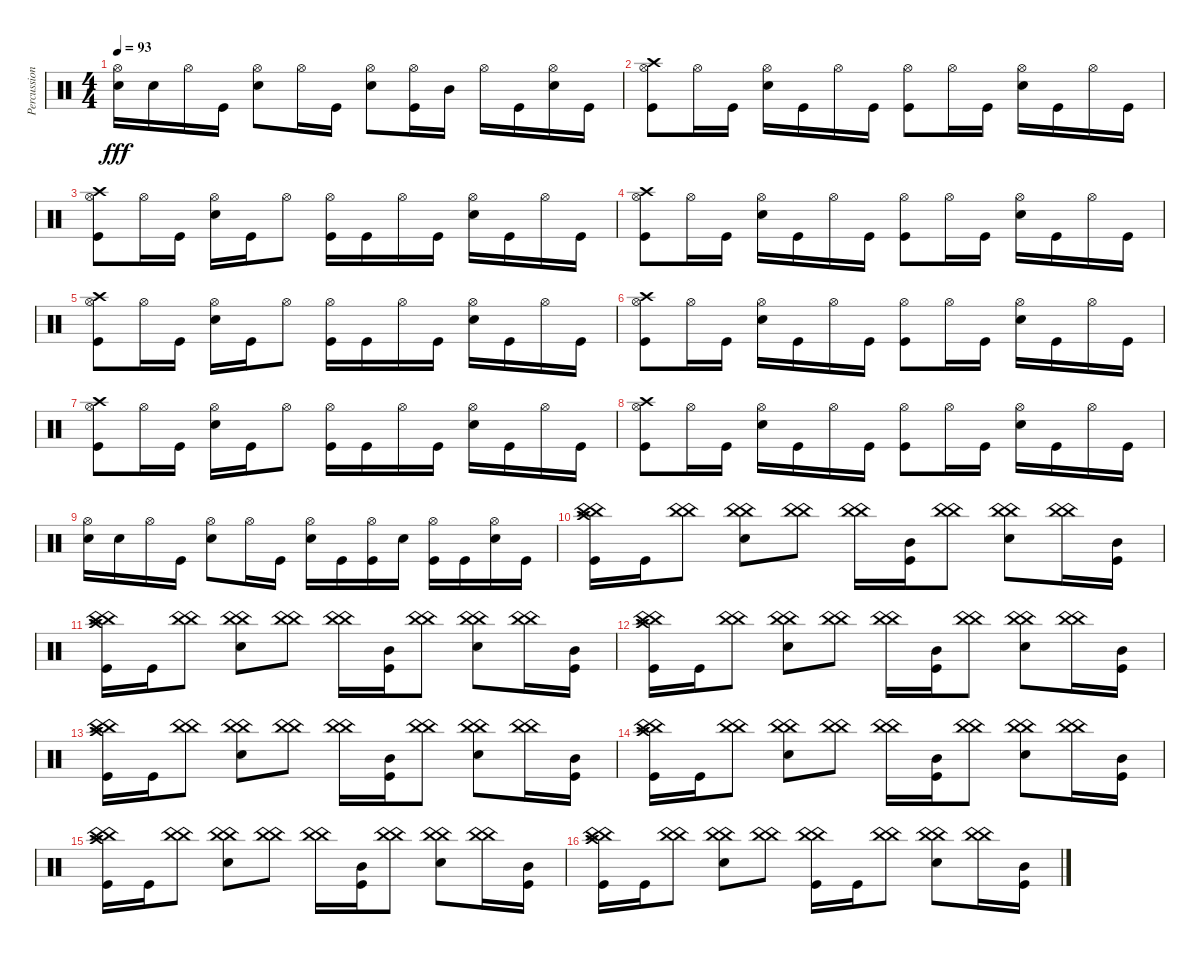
\track ("Percussion" "Percussion") {instrument percussion}
\staff {score}
\articulation defaults
\ts (4 4)
\tempo 93
\clef neutral
\ks c
("Hi-Hat (open)" "Snare (hit) 2").16{dy fff} "Snare (hit) 2".16 "Hi-Hat (open)".16 "Kick (hit)".16 ("Hi-Hat (open)" "Snare (hit) 2").8 "Hi-Hat (open)".16 "Kick (hit)".16 ("Hi-Hat (open)" "Snare (hit) 2").8 ("Hi-Hat (open)" "Kick (hit)").16 "Mid Tom (hit)".16 "Hi-Hat (open)".16 "Kick (hit)".16 ("Hi-Hat (open)" "Snare (hit) 2").16 "Kick (hit)".16 |
("Hi-Hat (open)" "Crash high (hit)" "Kick (hit)").8 "Hi-Hat (open)".16 "Kick (hit)".16 ("Hi-Hat (open)" "Snare (hit) 2").16 "Kick (hit)".16 "Hi-Hat (open)".16 "Kick (hit)".16 ("Hi-Hat (open)" "Kick (hit)").8 "Hi-Hat (open)".16 "Kick (hit)".16 ("Hi-Hat (open)" "Snare (hit) 2").16 "Kick (hit)".16 "Hi-Hat (open)".16 "Kick (hit)".16 |
("Hi-Hat (open)" "Crash high (hit)" "Kick (hit)").8 "Hi-Hat (open)".16 "Kick (hit)".16 ("Hi-Hat (open)" "Snare (hit) 2").16 "Kick (hit)".16 "Hi-Hat (open)".8 ("Hi-Hat (open)" "Kick (hit)").16 "Kick (hit)".16 "Hi-Hat (open)".16 "Kick (hit)".16 ("Hi-Hat (open)" "Snare (hit) 2").16 "Kick (hit)".16 "Hi-Hat (open)".16 "Kick (hit)".16 |
("Hi-Hat (open)" "Crash high (hit)" "Kick (hit)").8 "Hi-Hat (open)".16 "Kick (hit)".16 ("Hi-Hat (open)" "Snare (hit) 2").16 "Kick (hit)".16 "Hi-Hat (open)".16 "Kick (hit)".16 ("Hi-Hat (open)" "Kick (hit)").8 "Hi-Hat (open)".16 "Kick (hit)".16 ("Hi-Hat (open)" "Snare (hit) 2").16 "Kick (hit)".16 "Hi-Hat (open)".16 "Kick (hit)".16 |
("Hi-Hat (open)" "Crash high (hit)" "Kick (hit)").8 "Hi-Hat (open)".16 "Kick (hit)".16 ("Hi-Hat (open)" "Snare (hit) 2").16 "Kick (hit)".16 "Hi-Hat (open)".8 ("Hi-Hat (open)" "Kick (hit)").16 "Kick (hit)".16 "Hi-Hat (open)".16 "Kick (hit)".16 ("Hi-Hat (open)" "Snare (hit) 2").16 "Kick (hit)".16 "Hi-Hat (open)".16 "Kick (hit)".16 |
("Hi-Hat (open)" "Crash high (hit)" "Kick (hit)").8 "Hi-Hat (open)".16 "Kick (hit)".16 ("Hi-Hat (open)" "Snare (hit) 2").16 "Kick (hit)".16 "Hi-Hat (open)".16 "Kick (hit)".16 ("Hi-Hat (open)" "Kick (hit)").8 "Hi-Hat (open)".16 "Kick (hit)".16 ("Hi-Hat (open)" "Snare (hit) 2").16 "Kick (hit)".16 "Hi-Hat (open)".16 "Kick (hit)".16 |
("Hi-Hat (open)" "Crash high (hit)" "Kick (hit)").8 "Hi-Hat (open)".16 "Kick (hit)".16 ("Hi-Hat (open)" "Snare (hit) 2").16 "Kick (hit)".16 "Hi-Hat (open)".8 ("Hi-Hat (open)" "Kick (hit)").16 "Kick (hit)".16 "Hi-Hat (open)".16 "Kick (hit)".16 ("Hi-Hat (open)" "Snare (hit) 2").16 "Kick (hit)".16 "Hi-Hat (open)".16 "Kick (hit)".16 |
("Hi-Hat (open)" "Crash high (hit)" "Kick (hit)").8 "Hi-Hat (open)".16 "Kick (hit)".16 ("Hi-Hat (open)" "Snare (hit) 2").16 "Kick (hit)".16 "Hi-Hat (open)".16 "Kick (hit)".16 ("Hi-Hat (open)" "Kick (hit)").8 "Hi-Hat (open)".16 "Kick (hit)".16 ("Hi-Hat (open)" "Snare (hit) 2").16 "Kick (hit)".16 "Hi-Hat (open)".16 "Kick (hit)".16 |
("Hi-Hat (open)" "Snare (hit) 2").16 "Snare (hit) 2".16 "Hi-Hat (open)".16 "Kick (hit)".16 ("Hi-Hat (open)" "Snare (hit) 2").8 "Hi-Hat (open)".16 "Kick (hit)".16 ("Hi-Hat (open)" "Snare (hit) 2").16 "Kick (hit)".16 ("Hi-Hat (open)" "Kick (hit)").16 "Snare (hit) 2".16 ("Hi-Hat (open)" "Kick (hit)").16 "Kick (hit)".16 ("Hi-Hat (open)" "Snare (hit) 2").16 "Kick (hit)".16 |
("China (hit)" "Crash high (hit)" "China (hit)" "Kick (hit)").16 "Kick (hit)".16 ("China (hit)" "China (hit)").8 ("China (hit)" "China (hit)" "Snare (hit) 2").8 ("China (hit)" "China (hit)").8 ("China (hit)" "China (hit)").16 ("Mid Tom (hit)" "Kick (hit)").16 ("China (hit)" "China (hit)").8 ("China (hit)" "China (hit)" "Snare (hit) 2").8 ("China (hit)" "China (hit)").16 ("Mid Tom (hit)" "Kick (hit)").16 |
("China (hit)" "Crash high (hit)" "China (hit)" "Kick (hit)").16 "Kick (hit)".16 ("China (hit)" "China (hit)").8 ("China (hit)" "China (hit)" "Snare (hit) 2").8 ("China (hit)" "China (hit)").8 ("China (hit)" "China (hit)").16 ("Mid Tom (hit)" "Kick (hit)").16 ("China (hit)" "China (hit)").8 ("China (hit)" "China (hit)" "Snare (hit) 2").8 ("China (hit)" "China (hit)").16 ("Mid Tom (hit)" "Kick (hit)").16 |
("China (hit)" "Crash high (hit)" "China (hit)" "Kick (hit)").16 "Kick (hit)".16 ("China (hit)" "China (hit)").8 ("China (hit)" "China (hit)" "Snare (hit) 2").8 ("China (hit)" "China (hit)").8 ("China (hit)" "China (hit)").16 ("Mid Tom (hit)" "Kick (hit)").16 ("China (hit)" "China (hit)").8 ("China (hit)" "China (hit)" "Snare (hit) 2").8 ("China (hit)" "China (hit)").16 ("Mid Tom (hit)" "Kick (hit)").16 |
("China (hit)" "Crash high (hit)" "China (hit)" "Kick (hit)").16 "Kick (hit)".16 ("China (hit)" "China (hit)").8 ("China (hit)" "China (hit)" "Snare (hit) 2").8 ("China (hit)" "China (hit)").8 ("China (hit)" "China (hit)").16 ("Mid Tom (hit)" "Kick (hit)").16 ("China (hit)" "China (hit)").8 ("China (hit)" "China (hit)" "Snare (hit) 2").8 ("China (hit)" "China (hit)").16 ("Mid Tom (hit)" "Kick (hit)").16 |
("China (hit)" "Crash high (hit)" "China (hit)" "Kick (hit)").16 "Kick (hit)".16 ("China (hit)" "China (hit)").8 ("China (hit)" "China (hit)" "Snare (hit) 2").8 ("China (hit)" "China (hit)").8 ("China (hit)" "China (hit)").16 ("Mid Tom (hit)" "Kick (hit)").16 ("China (hit)" "China (hit)").8 ("China (hit)" "China (hit)" "Snare (hit) 2").8 ("China (hit)" "China (hit)").16 ("Mid Tom (hit)" "Kick (hit)").16 |
("China (hit)" "Crash high (hit)" "China (hit)" "Kick (hit)").16 "Kick (hit)".16 ("China (hit)" "China (hit)").8 ("China (hit)" "China (hit)" "Snare (hit) 2").8 ("China (hit)" "China (hit)").8 ("China (hit)" "China (hit)").16 ("Mid Tom (hit)" "Kick (hit)").16 ("China (hit)" "China (hit)").8 ("China (hit)" "China (hit)" "Snare (hit) 2").8 ("China (hit)" "China (hit)").16 ("Mid Tom (hit)" "Kick (hit)").16 |
("China (hit)" "Crash high (hit)" "China (hit)" "Kick (hit)").16 "Kick (hit)".16 ("China (hit)" "China (hit)").8 ("China (hit)" "China (hit)" "Snare (hit) 2").8 ("China (hit)" "China (hit)").8 ("China (hit)" "China (hit)" "Kick (hit)").16 "Kick (hit)".16 ("China (hit)" "China (hit)").8 ("China (hit)" "China (hit)" "Snare (hit) 2").8 ("China (hit)" "China (hit)").16 ("Mid Tom (hit)" "Kick (hit)").16
